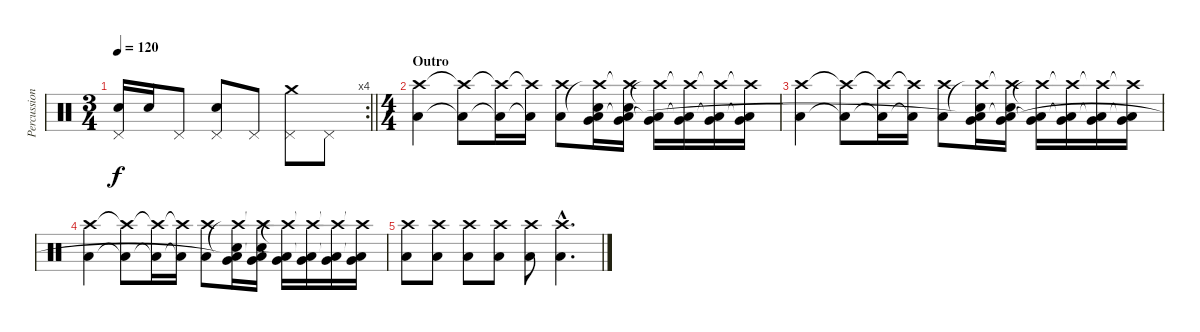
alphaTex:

\track ("Percussion" "Percussion") {instrument percussion}
\staff {score}
\articulation defaults
\rc 4
\ts (3 4)
\tempo 120
\clef neutral
\barLineRight lightlight
\ks c
("Electric Snare (hit)" "Pedal Hi-Hat (hit)").16{dy f} "Electric Snare (hit)".16 "Pedal Hi-Hat (hit)".8 ("Electric Snare (hit)" "Pedal Hi-Hat (hit)").8 "Pedal Hi-Hat (hit)".8 ("Crash medium (hit)" "Pedal Hi-Hat (hit)").8 "Pedal Hi-Hat (hit)".8 |
\ts (4 4)
\section ("" "Outro")
("Crash high (hit)" "Low Floor Tom (hit)").4 ("Crash high (hit)"{t} "Low Floor Tom (hit)"{t}).8 ("Crash high (hit)"{t} "Low Floor Tom (hit)"{t}).16 ("Crash high (hit)"{t} "Low Floor Tom (hit)"{t}).16 ("Crash high (hit)" "Low Floor Tom (hit)").8 ("Electric Snare (hit)" "Crash high (hit)"{t} "Very Low Tom (hit)" "Low Floor Tom (hit)").16 ("Electric Snare (hit)" "Crash high (hit)"{t} "Very Low Tom (hit)" "Low Floor Tom (hit)"{t}).16 ("Crash high (hit)"{t} "Very Low Tom (hit)" "Low Floor Tom (hit)"{t}).16 ("Crash high (hit)"{t} "Very Low Tom (hit)" "Low Floor Tom (hit)"{t}).16 ("Crash high (hit)"{t} "Very Low Tom (hit)" "Low Floor Tom (hit)"{t}).16 ("Crash high (hit)"{t} "Very Low Tom (hit)" "Low Floor Tom (hit)"{t}).16 |
("Crash high (hit)" "Low Floor Tom (hit)").4 ("Crash high (hit)"{t} "Low Floor Tom (hit)"{t}).8 ("Crash high (hit)"{t} "Low Floor Tom (hit)"{t}).16 ("Crash high (hit)"{t} "Low Floor Tom (hit)"{t}).16 ("Crash high (hit)" "Low Floor Tom (hit)").8 ("Electric Snare (hit)" "Crash high (hit)"{t} "Very Low Tom (hit)" "Low Floor Tom (hit)"{t}).16 ("Electric Snare (hit)" "Crash high (hit)"{t} "Very Low Tom (hit)" "Low Floor Tom (hit)"{t}).16 ("Crash high (hit)"{t} "Very Low Tom (hit)" "Low Floor Tom (hit)"{t}).16 ("Crash high (hit)"{t} "Very Low Tom (hit)" "Low Floor Tom (hit)"{t}).16 ("Crash high (hit)"{t} "Very Low Tom (hit)" "Low Floor Tom (hit)"{t}).16 ("Crash high (hit)"{t} "Very Low Tom (hit)" "Low Floor Tom (hit)"{t}).16 |
("Crash high (hit)" "Low Floor Tom (hit)").4 ("Crash high (hit)"{t} "Low Floor Tom (hit)"{t}).8 ("Crash high (hit)"{t} "Low Floor Tom (hit)"{t}).16 ("Crash high (hit)"{t} "Low Floor Tom (hit)"{t}).16 ("Crash high (hit)" "Low Floor Tom (hit)").8 ("Electric Snare (hit)" "Crash high (hit)"{t} "Very Low Tom (hit)" "Low Floor Tom (hit)"{t}).16 ("Electric Snare (hit)" "Crash high (hit)"{t} "Very Low Tom (hit)" "Low Floor Tom (hit)"{t}).16 ("Crash high (hit)"{t} "Very Low Tom (hit)" "Low Floor Tom (hit)"{t}).16 ("Crash high (hit)"{t} "Very Low Tom (hit)" "Low Floor Tom (hit)"{t}).16 ("Crash high (hit)"{t} "Very Low Tom (hit)" "Low Floor Tom (hit)"{t}).16 ("Crash high (hit)"{t} "Very Low Tom (hit)" "Low Floor Tom (hit)"{t}).16 |
("Crash high (hit)" "Low Floor Tom (hit)").8 ("Crash high (hit)" "Low Floor Tom (hit)").8 ("Crash high (hit)" "Low Floor Tom (hit)").8 ("Crash high (hit)" "Low Floor Tom (hit)").8 ("Crash high (hit)" "Low Floor Tom (hit)").8 ("Crash high (hit)"{hac} "Low Floor Tom (hit)"{hac}).4{d}
